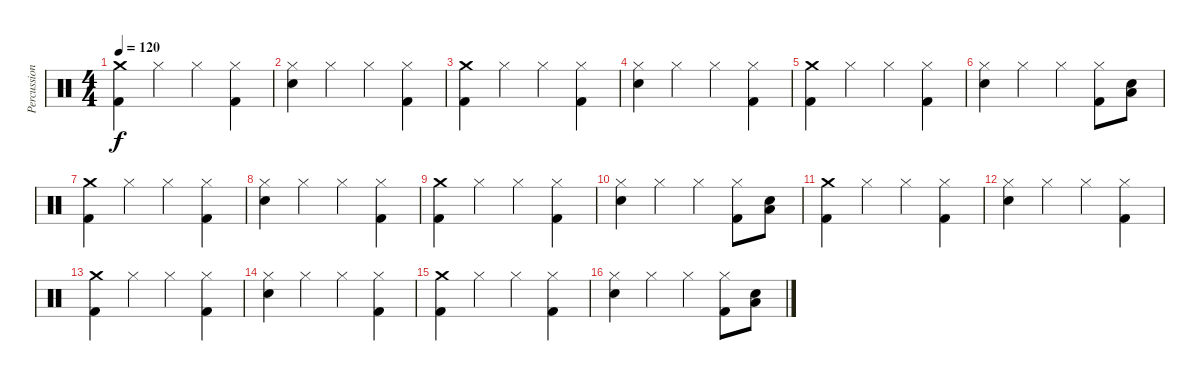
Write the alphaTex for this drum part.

\track ("Percussion" "Percussion") {instrument percussion}
\staff {score}
\articulation defaults
\ts (4 4)
\tempo 120
\clef neutral
\ks aminor
("Crash medium (hit)" "Kick (hit) 2").4{dy f} "Hi-Hat (closed)".4 "Hi-Hat (closed)".4 ("Hi-Hat (closed)" "Kick (hit) 2").4 |
("Hi-Hat (closed)" "Snare (hit) 2").4 "Hi-Hat (closed)".4 "Hi-Hat (closed)".4 ("Hi-Hat (closed)" "Kick (hit) 2").4 |
\ks c
("Crash medium (hit)" "Kick (hit) 2").4 "Hi-Hat (closed)".4 "Hi-Hat (closed)".4 ("Hi-Hat (closed)" "Kick (hit) 2").4 |
("Hi-Hat (closed)" "Snare (hit) 2").4 "Hi-Hat (closed)".4 "Hi-Hat (closed)".4 ("Hi-Hat (closed)" "Kick (hit) 2").4 |
("Crash medium (hit)" "Kick (hit) 2").4 "Hi-Hat (closed)".4 "Hi-Hat (closed)".4 ("Hi-Hat (closed)" "Kick (hit) 2").4 |
("Hi-Hat (closed)" "Snare (hit) 2").4 "Hi-Hat (closed)".4 "Hi-Hat (closed)".4 ("Hi-Hat (closed)" "Kick (hit) 2").8 ("Low Tom (hit)" "Electric Snare (hit)").8 |
("Crash medium (hit)" "Kick (hit) 2").4 "Hi-Hat (closed)".4 "Hi-Hat (closed)".4 ("Hi-Hat (closed)" "Kick (hit) 2").4 |
("Hi-Hat (closed)" "Snare (hit) 2").4 "Hi-Hat (closed)".4 "Hi-Hat (closed)".4 ("Hi-Hat (closed)" "Kick (hit) 2").4 |
("Crash medium (hit)" "Kick (hit) 2").4 "Hi-Hat (closed)".4 "Hi-Hat (closed)".4 ("Hi-Hat (closed)" "Kick (hit) 2").4 |
("Hi-Hat (closed)" "Snare (hit) 2").4 "Hi-Hat (closed)".4 "Hi-Hat (closed)".4 ("Hi-Hat (closed)" "Kick (hit) 2").8 ("Low Tom (hit)" "Electric Snare (hit)").8 |
("Crash medium (hit)" "Kick (hit) 2").4 "Hi-Hat (closed)".4 "Hi-Hat (closed)".4 ("Hi-Hat (closed)" "Kick (hit) 2").4 |
("Hi-Hat (closed)" "Snare (hit) 2").4 "Hi-Hat (closed)".4 "Hi-Hat (closed)".4 ("Hi-Hat (closed)" "Kick (hit) 2").4 |
("Crash medium (hit)" "Kick (hit) 2").4 "Hi-Hat (closed)".4 "Hi-Hat (closed)".4 ("Hi-Hat (closed)" "Kick (hit) 2").4 |
("Hi-Hat (closed)" "Snare (hit) 2").4 "Hi-Hat (closed)".4 "Hi-Hat (closed)".4 ("Hi-Hat (closed)" "Kick (hit) 2").4 |
("Crash medium (hit)" "Kick (hit) 2").4 "Hi-Hat (closed)".4 "Hi-Hat (closed)".4 ("Hi-Hat (closed)" "Kick (hit) 2").4 |
("Hi-Hat (closed)" "Snare (hit) 2").4 "Hi-Hat (closed)".4 "Hi-Hat (closed)".4 ("Hi-Hat (closed)" "Kick (hit) 2").8 ("Low Tom (hit)" "Electric Snare (hit)").8
